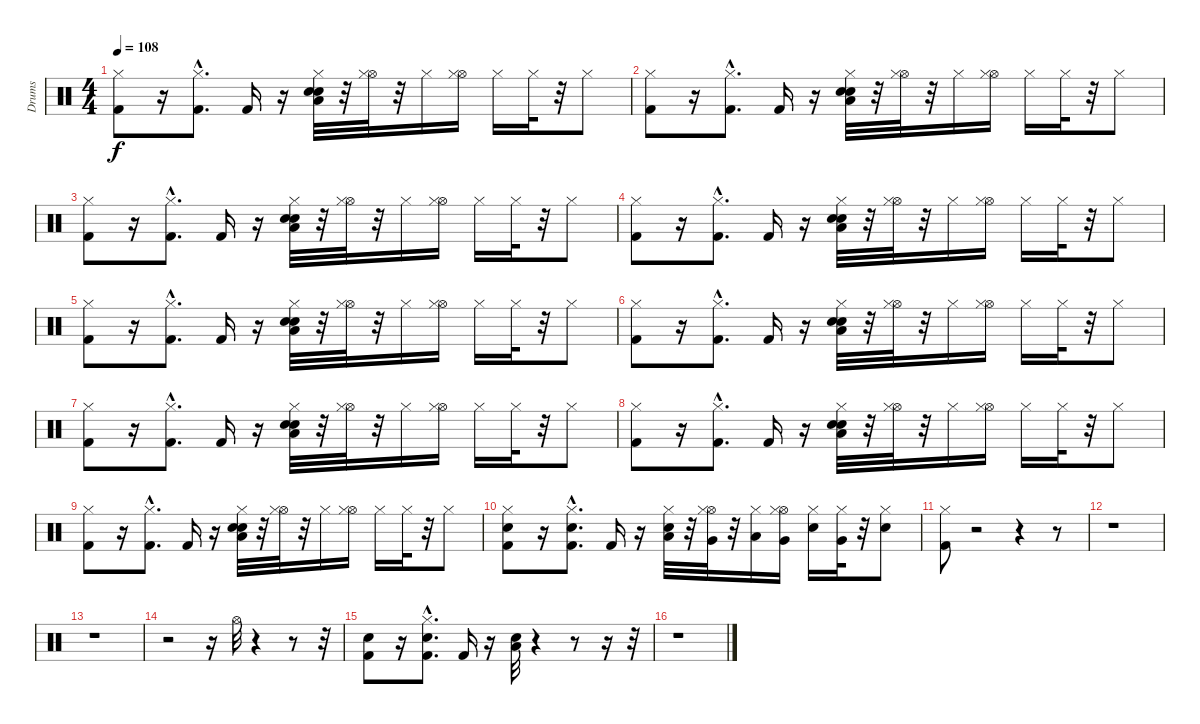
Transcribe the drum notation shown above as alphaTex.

\track ("Drums" "Drums") {instrument percussion}
\staff {score}
\articulation defaults
\ts (4 4)
\tempo 108
\clef neutral
\ks c
("Hi-Hat (closed)" "Kick (hit) 2").8{dy f} r.16 ("Kick (hit) 2"{hac} "Hi-Hat (closed)"{hac}).8{d} "Kick (hit) 2".16 r.16 ("Low Floor Tom (hit)" "Electric Snare (hit)" "Snare (hit) 2" "Hi-Hat (closed)").32 r.32 ("Hi-Hat (open)" "Hi-Hat (closed)").32 r.32 "Hi-Hat (closed)".16 ("Hi-Hat (open)" "Hi-Hat (closed)").16 "Hi-Hat (closed)".16 "Hi-Hat (closed)".32 r.32 "Hi-Hat (closed)".8 |
("Hi-Hat (closed)" "Kick (hit) 2").8 r.16 ("Kick (hit) 2"{hac} "Hi-Hat (closed)"{hac}).8{d} "Kick (hit) 2".16 r.16 ("Low Floor Tom (hit)" "Electric Snare (hit)" "Snare (hit) 2" "Hi-Hat (closed)").32 r.32 ("Hi-Hat (open)" "Hi-Hat (closed)").32 r.32 "Hi-Hat (closed)".16 ("Hi-Hat (open)" "Hi-Hat (closed)").16 "Hi-Hat (closed)".16 "Hi-Hat (closed)".32 r.32 "Hi-Hat (closed)".8 |
("Hi-Hat (closed)" "Kick (hit) 2").8 r.16 ("Kick (hit) 2"{hac} "Hi-Hat (closed)"{hac}).8{d} "Kick (hit) 2".16 r.16 ("Low Floor Tom (hit)" "Electric Snare (hit)" "Snare (hit) 2" "Hi-Hat (closed)").32 r.32 ("Hi-Hat (open)" "Hi-Hat (closed)").32 r.32 "Hi-Hat (closed)".16 ("Hi-Hat (open)" "Hi-Hat (closed)").16 "Hi-Hat (closed)".16 "Hi-Hat (closed)".32 r.32 "Hi-Hat (closed)".8 |
("Hi-Hat (closed)" "Kick (hit) 2").8 r.16 ("Kick (hit) 2"{hac} "Hi-Hat (closed)"{hac}).8{d} "Kick (hit) 2".16 r.16 ("Low Floor Tom (hit)" "Electric Snare (hit)" "Snare (hit) 2" "Hi-Hat (closed)").32 r.32 ("Hi-Hat (open)" "Hi-Hat (closed)").32 r.32 "Hi-Hat (closed)".16 ("Hi-Hat (open)" "Hi-Hat (closed)").16 "Hi-Hat (closed)".16 "Hi-Hat (closed)".32 r.32 "Hi-Hat (closed)".8 |
("Hi-Hat (closed)" "Kick (hit) 2").8 r.16 ("Kick (hit) 2"{hac} "Hi-Hat (closed)"{hac}).8{d} "Kick (hit) 2".16 r.16 ("Low Floor Tom (hit)" "Electric Snare (hit)" "Snare (hit) 2" "Hi-Hat (closed)").32 r.32 ("Hi-Hat (open)" "Hi-Hat (closed)").32 r.32 "Hi-Hat (closed)".16 ("Hi-Hat (open)" "Hi-Hat (closed)").16 "Hi-Hat (closed)".16 "Hi-Hat (closed)".32 r.32 "Hi-Hat (closed)".8 |
("Hi-Hat (closed)" "Kick (hit) 2").8 r.16 ("Kick (hit) 2"{hac} "Hi-Hat (closed)"{hac}).8{d} "Kick (hit) 2".16 r.16 ("Low Floor Tom (hit)" "Electric Snare (hit)" "Snare (hit) 2" "Hi-Hat (closed)").32 r.32 ("Hi-Hat (open)" "Hi-Hat (closed)").32 r.32 "Hi-Hat (closed)".16 ("Hi-Hat (open)" "Hi-Hat (closed)").16 "Hi-Hat (closed)".16 "Hi-Hat (closed)".32 r.32 "Hi-Hat (closed)".8 |
("Hi-Hat (closed)" "Kick (hit) 2").8 r.16 ("Kick (hit) 2"{hac} "Hi-Hat (closed)"{hac}).8{d} "Kick (hit) 2".16 r.16 ("Low Floor Tom (hit)" "Electric Snare (hit)" "Snare (hit) 2" "Hi-Hat (closed)").32 r.32 ("Hi-Hat (open)" "Hi-Hat (closed)").32 r.32 "Hi-Hat (closed)".16 ("Hi-Hat (open)" "Hi-Hat (closed)").16 "Hi-Hat (closed)".16 "Hi-Hat (closed)".32 r.32 "Hi-Hat (closed)".8 |
("Hi-Hat (closed)" "Kick (hit) 2").8 r.16 ("Kick (hit) 2"{hac} "Hi-Hat (closed)"{hac}).8{d} "Kick (hit) 2".16 r.16 ("Low Floor Tom (hit)" "Electric Snare (hit)" "Snare (hit) 2" "Hi-Hat (closed)").32 r.32 ("Hi-Hat (open)" "Hi-Hat (closed)").32 r.32 "Hi-Hat (closed)".16 ("Hi-Hat (open)" "Hi-Hat (closed)").16 "Hi-Hat (closed)".16 "Hi-Hat (closed)".32 r.32 "Hi-Hat (closed)".8 |
("Hi-Hat (closed)" "Kick (hit) 2").8 r.16 ("Kick (hit) 2"{hac} "Hi-Hat (closed)"{hac}).8{d} "Kick (hit) 2".16 r.16 ("Low Floor Tom (hit)" "Electric Snare (hit)" "Snare (hit) 2" "Hi-Hat (closed)").32 r.32 ("Hi-Hat (open)" "Hi-Hat (closed)").32 r.32 "Hi-Hat (closed)".16 ("Hi-Hat (open)" "Hi-Hat (closed)").16 "Hi-Hat (closed)".16 "Hi-Hat (closed)".32 r.32 "Hi-Hat (closed)".8 |
("Kick (hit) 2" "Snare (hit) 2" "Hi-Hat (closed)").8 r.16 ("Kick (hit) 2"{hac} "Electric Snare (hit)"{hac} "Hi-Hat (closed)"{hac}).8{d} "Kick (hit) 2".16 r.16 ("Snare (hit) 2" "Low Tom (hit)" "Hi-Hat (closed)").32 r.32 ("Very Low Tom (hit)" "Hi-Hat (open)" "Hi-Hat (closed)").32 r.32 ("Hi-Hat (closed)" "Low Floor Tom (hit)").16 ("Hi-Hat (open)" "Very Low Tom (hit)" "Hi-Hat (closed)").16 ("Electric Snare (hit)" "Hi-Hat (closed)").16 ("Very Low Tom (hit)" "Hi-Hat (closed)").32 r.32 ("Snare (hit) 2" "Hi-Hat (closed)").8 |
("Hi-Hat (closed)" "Kick (hit) 2").8 r.2 r.4 r.8 |
r.1 |
r.1 |
r.2 r.16 "Hi-Hat (open)".32 r.4 r.8 r.32 |
("Kick (hit) 2" "Snare (hit) 2").8 r.16 ("Kick (hit) 2"{hac} "Electric Snare (hit)"{hac} "Hi-Hat (closed)"{hac}).8{d} "Kick (hit) 2".16 r.16 ("Snare (hit) 2" "Low Tom (hit)").32 r.4 r.8 r.16 r.32 |
r.1
